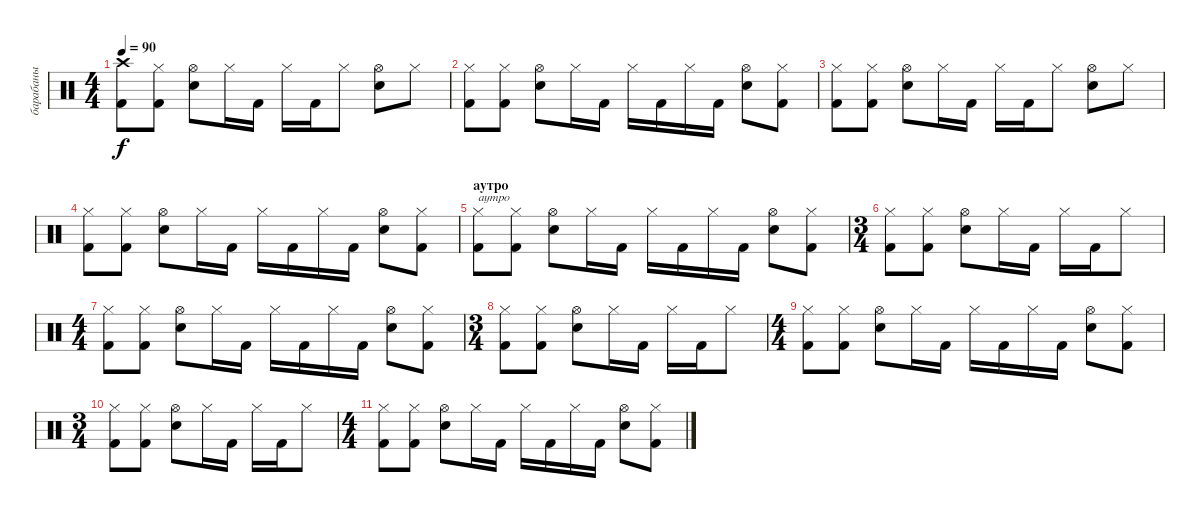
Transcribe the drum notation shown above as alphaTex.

\track ("барабаны" "барабаны") {instrument percussion}
\staff {score}
\articulation defaults
\ts (4 4)
\tempo 90
\clef neutral
\ks c
("Crash high (hit)" "Kick (hit) 2").8{dy f} ("Hi-Hat (closed)" "Kick (hit) 2").8 ("Hi-Hat (open)" "Electric Snare (hit)").8 "Hi-Hat (closed)".16 "Kick (hit) 2".16 "Hi-Hat (closed)".16 "Kick (hit) 2".16 "Hi-Hat (closed)".8 ("Hi-Hat (open)" "Electric Snare (hit)").8 "Hi-Hat (closed)".8 |
("Hi-Hat (closed)" "Kick (hit) 2").8 ("Hi-Hat (closed)" "Kick (hit) 2").8 ("Hi-Hat (open)" "Electric Snare (hit)").8 "Hi-Hat (closed)".16 "Kick (hit) 2".16 "Hi-Hat (closed)".16 "Kick (hit) 2".16 "Hi-Hat (closed)".16 "Kick (hit) 2".16 ("Hi-Hat (open)" "Electric Snare (hit)").8 ("Hi-Hat (closed)" "Kick (hit) 2").8 |
("Hi-Hat (closed)" "Kick (hit) 2").8 ("Hi-Hat (closed)" "Kick (hit) 2").8 ("Hi-Hat (open)" "Electric Snare (hit)").8 "Hi-Hat (closed)".16 "Kick (hit) 2".16 "Hi-Hat (closed)".16 "Kick (hit) 2".16 "Hi-Hat (closed)".8 ("Hi-Hat (open)" "Electric Snare (hit)").8 "Hi-Hat (closed)".8 |
("Hi-Hat (closed)" "Kick (hit) 2").8 ("Hi-Hat (closed)" "Kick (hit) 2").8 ("Hi-Hat (open)" "Electric Snare (hit)").8 "Hi-Hat (closed)".16 "Kick (hit) 2".16 "Hi-Hat (closed)".16 "Kick (hit) 2".16 "Hi-Hat (closed)".16 "Kick (hit) 2".16 ("Hi-Hat (open)" "Electric Snare (hit)").8 ("Hi-Hat (closed)" "Kick (hit) 2").8 |
\section ("" "аутро")
("Hi-Hat (closed)" "Kick (hit) 2").8{txt "аутро"} ("Hi-Hat (closed)" "Kick (hit) 2").8 ("Hi-Hat (open)" "Electric Snare (hit)").8 "Hi-Hat (closed)".16 "Kick (hit) 2".16 "Hi-Hat (closed)".16 "Kick (hit) 2".16 "Hi-Hat (closed)".16 "Kick (hit) 2".16 ("Hi-Hat (open)" "Electric Snare (hit)").8 ("Hi-Hat (closed)" "Kick (hit) 2").8 |
\ts (3 4)
("Hi-Hat (closed)" "Kick (hit) 2").8 ("Hi-Hat (closed)" "Kick (hit) 2").8 ("Hi-Hat (open)" "Electric Snare (hit)").8 "Hi-Hat (closed)".16 "Kick (hit) 2".16 "Hi-Hat (closed)".16 "Kick (hit) 2".16 "Hi-Hat (closed)".8 |
\ts (4 4)
("Hi-Hat (closed)" "Kick (hit) 2").8 ("Hi-Hat (closed)" "Kick (hit) 2").8 ("Hi-Hat (open)" "Electric Snare (hit)").8 "Hi-Hat (closed)".16 "Kick (hit) 2".16 "Hi-Hat (closed)".16 "Kick (hit) 2".16 "Hi-Hat (closed)".16 "Kick (hit) 2".16 ("Hi-Hat (open)" "Electric Snare (hit)").8 ("Hi-Hat (closed)" "Kick (hit) 2").8 |
\ts (3 4)
("Hi-Hat (closed)" "Kick (hit) 2").8 ("Hi-Hat (closed)" "Kick (hit) 2").8 ("Hi-Hat (open)" "Electric Snare (hit)").8 "Hi-Hat (closed)".16 "Kick (hit) 2".16 "Hi-Hat (closed)".16 "Kick (hit) 2".16 "Hi-Hat (closed)".8 |
\ts (4 4)
("Hi-Hat (closed)" "Kick (hit) 2").8 ("Hi-Hat (closed)" "Kick (hit) 2").8 ("Hi-Hat (open)" "Electric Snare (hit)").8 "Hi-Hat (closed)".16 "Kick (hit) 2".16 "Hi-Hat (closed)".16 "Kick (hit) 2".16 "Hi-Hat (closed)".16 "Kick (hit) 2".16 ("Hi-Hat (open)" "Electric Snare (hit)").8 ("Hi-Hat (closed)" "Kick (hit) 2").8 |
\ts (3 4)
("Hi-Hat (closed)" "Kick (hit) 2").8 ("Hi-Hat (closed)" "Kick (hit) 2").8 ("Hi-Hat (open)" "Electric Snare (hit)").8 "Hi-Hat (closed)".16 "Kick (hit) 2".16 "Hi-Hat (closed)".16 "Kick (hit) 2".16 "Hi-Hat (closed)".8 |
\ts (4 4)
("Hi-Hat (closed)" "Kick (hit) 2").8 ("Hi-Hat (closed)" "Kick (hit) 2").8 ("Hi-Hat (open)" "Electric Snare (hit)").8 "Hi-Hat (closed)".16 "Kick (hit) 2".16 "Hi-Hat (closed)".16 "Kick (hit) 2".16 "Hi-Hat (closed)".16 "Kick (hit) 2".16 ("Hi-Hat (open)" "Electric Snare (hit)").8 ("Hi-Hat (closed)" "Kick (hit) 2").8
